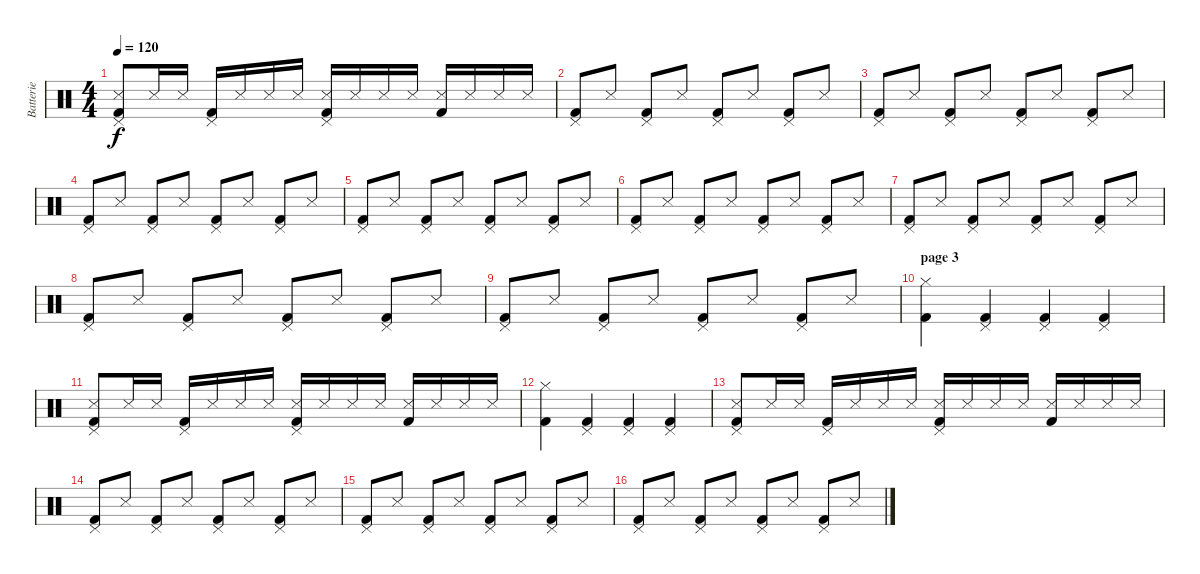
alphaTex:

\track ("Batterie" "Batterie") {instrument percussion}
\staff {score}
\articulation defaults
\ts (4 4)
\tempo 120
\clef neutral
\ks c
("Pedal Hi-Hat (hit)" "Snare (side stick) 3" "Kick (hit) 2").8{dy f} "Snare (side stick) 3".16 "Snare (side stick) 3".16 ("Pedal Hi-Hat (hit)" "Kick (hit) 2").16 "Snare (side stick) 3".16 "Snare (side stick) 3".16 "Snare (side stick) 3".16 ("Pedal Hi-Hat (hit)" "Snare (side stick) 3" "Kick (hit) 2").16 "Snare (side stick) 3".16 "Snare (side stick) 3".16 "Snare (side stick) 3".16 ("Snare (side stick) 3" "Kick (hit) 2").16 "Snare (side stick) 3".16 "Snare (side stick) 3".16 "Snare (side stick) 3".16 |
("Pedal Hi-Hat (hit)" "Kick (hit) 2").8 "Snare (side stick) 3".8 ("Pedal Hi-Hat (hit)" "Kick (hit) 2").8 "Snare (side stick) 3".8 ("Pedal Hi-Hat (hit)" "Kick (hit) 2").8 "Snare (side stick) 3".8 ("Pedal Hi-Hat (hit)" "Kick (hit) 2").8 "Snare (side stick) 3".8 |
("Pedal Hi-Hat (hit)" "Kick (hit) 2").8 "Snare (side stick) 3".8 ("Pedal Hi-Hat (hit)" "Kick (hit) 2").8 "Snare (side stick) 3".8 ("Pedal Hi-Hat (hit)" "Kick (hit) 2").8 "Snare (side stick) 3".8 ("Pedal Hi-Hat (hit)" "Kick (hit) 2").8 "Snare (side stick) 3".8 |
("Pedal Hi-Hat (hit)" "Kick (hit) 2").8 "Snare (side stick) 3".8 ("Pedal Hi-Hat (hit)" "Kick (hit) 2").8 "Snare (side stick) 3".8 ("Pedal Hi-Hat (hit)" "Kick (hit) 2").8 "Snare (side stick) 3".8 ("Pedal Hi-Hat (hit)" "Kick (hit) 2").8 "Snare (side stick) 3".8 |
("Pedal Hi-Hat (hit)" "Kick (hit) 2").8 "Snare (side stick) 3".8 ("Pedal Hi-Hat (hit)" "Kick (hit) 2").8 "Snare (side stick) 3".8 ("Pedal Hi-Hat (hit)" "Kick (hit) 2").8 "Snare (side stick) 3".8 ("Pedal Hi-Hat (hit)" "Kick (hit) 2").8 "Snare (side stick) 3".8 |
("Pedal Hi-Hat (hit)" "Kick (hit) 2").8 "Snare (side stick) 3".8 ("Pedal Hi-Hat (hit)" "Kick (hit) 2").8 "Snare (side stick) 3".8 ("Pedal Hi-Hat (hit)" "Kick (hit) 2").8 "Snare (side stick) 3".8 ("Pedal Hi-Hat (hit)" "Kick (hit) 2").8 "Snare (side stick) 3".8 |
("Pedal Hi-Hat (hit)" "Kick (hit) 2").8 "Snare (side stick) 3".8 ("Pedal Hi-Hat (hit)" "Kick (hit) 2").8 "Snare (side stick) 3".8 ("Pedal Hi-Hat (hit)" "Kick (hit) 2").8 "Snare (side stick) 3".8 ("Pedal Hi-Hat (hit)" "Kick (hit) 2").8 "Snare (side stick) 3".8 |
("Pedal Hi-Hat (hit)" "Kick (hit) 2").8 "Snare (side stick) 3".8 ("Pedal Hi-Hat (hit)" "Kick (hit) 2").8 "Snare (side stick) 3".8 ("Pedal Hi-Hat (hit)" "Kick (hit) 2").8 "Snare (side stick) 3".8 ("Pedal Hi-Hat (hit)" "Kick (hit) 2").8 "Snare (side stick) 3".8 |
("Pedal Hi-Hat (hit)" "Kick (hit) 2").8 "Snare (side stick) 3".8 ("Pedal Hi-Hat (hit)" "Kick (hit) 2").8 "Snare (side stick) 3".8 ("Pedal Hi-Hat (hit)" "Kick (hit) 2").8 "Snare (side stick) 3".8 ("Pedal Hi-Hat (hit)" "Kick (hit) 2").8 "Snare (side stick) 3".8 |
\section ("" "page 3")
("Hi-Hat (closed)" "Kick (hit) 2").4 ("Pedal Hi-Hat (hit)" "Kick (hit) 2").4 ("Pedal Hi-Hat (hit)" "Kick (hit) 2").4 ("Pedal Hi-Hat (hit)" "Kick (hit) 2").4 |
("Pedal Hi-Hat (hit)" "Snare (side stick) 3" "Kick (hit) 2").8 "Snare (side stick) 3".16 "Snare (side stick) 3".16 ("Pedal Hi-Hat (hit)" "Kick (hit) 2").16 "Snare (side stick) 3".16 "Snare (side stick) 3".16 "Snare (side stick) 3".16 ("Pedal Hi-Hat (hit)" "Snare (side stick) 3" "Kick (hit) 2").16 "Snare (side stick) 3".16 "Snare (side stick) 3".16 "Snare (side stick) 3".16 ("Snare (side stick) 3" "Kick (hit) 2").16 "Snare (side stick) 3".16 "Snare (side stick) 3".16 "Snare (side stick) 3".16 |
("Hi-Hat (closed)" "Kick (hit) 2").4 ("Pedal Hi-Hat (hit)" "Kick (hit) 2").4 ("Pedal Hi-Hat (hit)" "Kick (hit) 2").4 ("Pedal Hi-Hat (hit)" "Kick (hit) 2").4 |
("Pedal Hi-Hat (hit)" "Snare (side stick) 3" "Kick (hit) 2").8 "Snare (side stick) 3".16 "Snare (side stick) 3".16 ("Pedal Hi-Hat (hit)" "Kick (hit) 2").16 "Snare (side stick) 3".16 "Snare (side stick) 3".16 "Snare (side stick) 3".16 ("Pedal Hi-Hat (hit)" "Snare (side stick) 3" "Kick (hit) 2").16 "Snare (side stick) 3".16 "Snare (side stick) 3".16 "Snare (side stick) 3".16 ("Snare (side stick) 3" "Kick (hit) 2").16 "Snare (side stick) 3".16 "Snare (side stick) 3".16 "Snare (side stick) 3".16 |
("Pedal Hi-Hat (hit)" "Kick (hit) 2").8 "Snare (side stick) 3".8 ("Pedal Hi-Hat (hit)" "Kick (hit) 2").8 "Snare (side stick) 3".8 ("Pedal Hi-Hat (hit)" "Kick (hit) 2").8 "Snare (side stick) 3".8 ("Pedal Hi-Hat (hit)" "Kick (hit) 2").8 "Snare (side stick) 3".8 |
("Pedal Hi-Hat (hit)" "Kick (hit) 2").8 "Snare (side stick) 3".8 ("Pedal Hi-Hat (hit)" "Kick (hit) 2").8 "Snare (side stick) 3".8 ("Pedal Hi-Hat (hit)" "Kick (hit) 2").8 "Snare (side stick) 3".8 ("Pedal Hi-Hat (hit)" "Kick (hit) 2").8 "Snare (side stick) 3".8 |
("Pedal Hi-Hat (hit)" "Kick (hit) 2").8 "Snare (side stick) 3".8 ("Pedal Hi-Hat (hit)" "Kick (hit) 2").8 "Snare (side stick) 3".8 ("Pedal Hi-Hat (hit)" "Kick (hit) 2").8 "Snare (side stick) 3".8 ("Pedal Hi-Hat (hit)" "Kick (hit) 2").8 "Snare (side stick) 3".8
